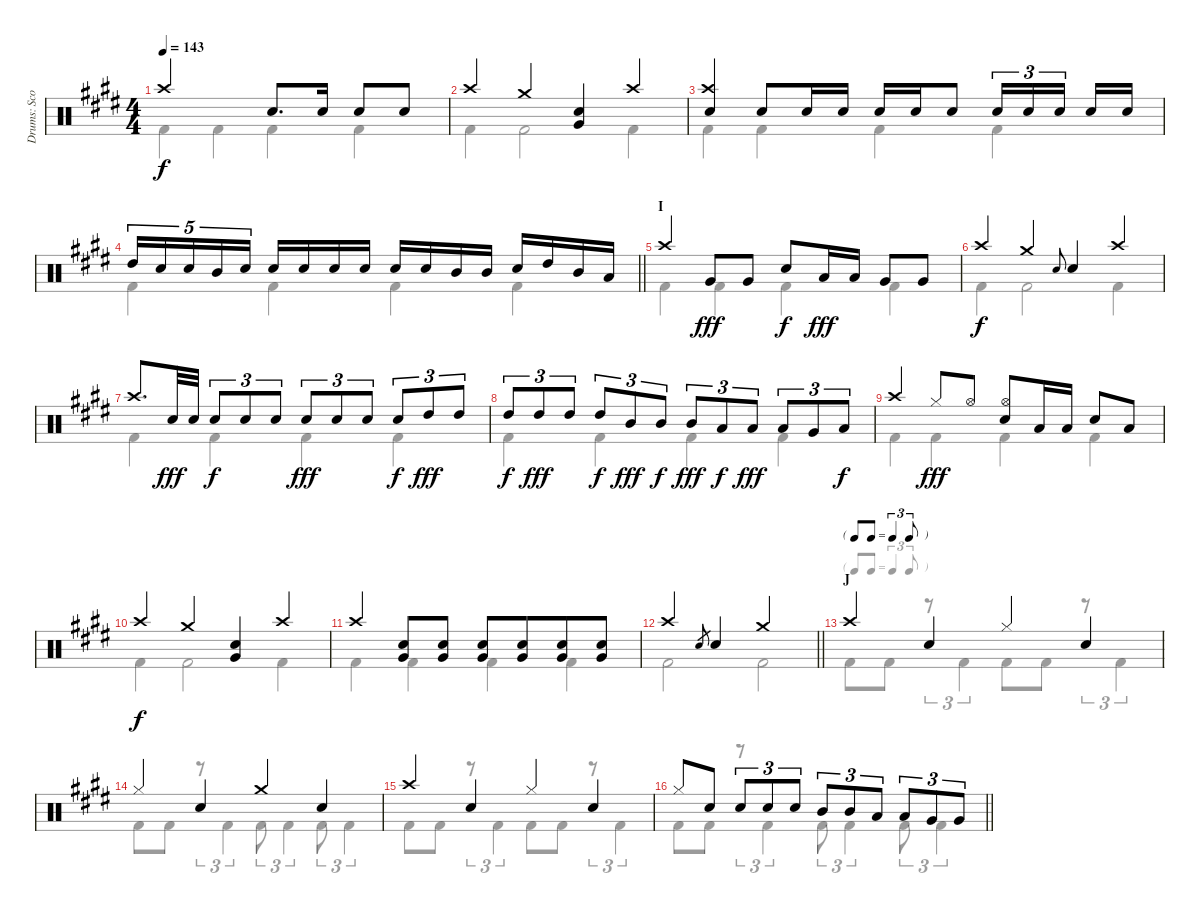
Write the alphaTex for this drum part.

\track ("Drums: Scott" "Drums: Sco") {instrument percussion}
\staff {score}
\articulation defaults
\voice
\ts (4 4)
\tempo 143
\clef neutral
\ks e "Crash high (hit)".2{dy f} "Snare (hit) 2".8{d} "Electric Snare (hit)".16 "Snare (hit) 2".8 "Snare (hit) 2".8
|
"Crash high (hit)".4 "Crash medium (hit)".4 ("Snare (hit) 2" "Very Low Tom (hit)").4 "Crash high (hit)".4 |
("Crash high (hit)" "Snare (hit) 2").4 "Snare (hit) 2".8 "Electric Snare (hit)".16 "Electric Snare (hit)".16 "Electric Snare (hit)".16 "Electric Snare (hit)".16 "Snare (hit) 2".8 "Electric Snare (hit)".16{tu (3 2)} "Electric Snare (hit)".16{tu (3 2)} "Electric Snare (hit)".16{tu (3 2) beam splitsecondary} "Snare (hit) 2".16 "Snare (hit) 2".16 |
\barLineRight lightlight "High Tom (hit)".16{tu (5 4)} "Electric Snare (hit)".16{tu (5 4)} "Electric Snare (hit)".16{tu (5 4)} "Mid Tom (hit)".16{tu (5 4)} "Electric Snare (hit)".16{tu (5 4)} "Electric Snare (hit)".16 "Electric Snare (hit)".16 "Electric Snare (hit)".16 "Electric Snare (hit)".16 "Electric Snare (hit)".16 "Electric Snare (hit)".16 "Mid Tom (hit)".16 "Mid Tom (hit)".16 "Electric Snare (hit)".16 "High Tom (hit)".16 "Mid Tom (hit)".16 "Low Tom (hit)".16
|
\section ("" "I")
"Crash high (hit)".4 "Very Low Tom (hit)".8{dy fff} "Very Low Tom (hit)".8 "Snare (hit) 2".8{dy f} "Low Tom (hit)".16{dy fff} "Low Tom (hit)".16 "Very Low Tom (hit)".8 "Very Low Tom (hit)".8 |
"Crash high (hit)".4{dy f} "Crash medium (hit)".4 "Electric Snare (hit)".8{gr onbeat} "Snare (hit) 2".4 "Crash high (hit)".4 |
"Crash high (hit)".8{d} "Electric Snare (hit)".32{dy fff} "Electric Snare (hit)".32 "Snare (hit) 2".8{tu (3 2) dy f} "Snare (hit) 2".8{tu (3 2)} "Snare (hit) 2".8{tu (3 2)} "Snare (hit) 2".8{tu (3 2) dy fff} "Snare (hit) 2".8{tu (3 2)} "Snare (hit) 2".8{tu (3 2)} "Snare (hit) 2".8{tu (3 2) dy f} "High Tom (hit)".8{tu (3 2) dy fff} "High Tom (hit)".8{tu (3 2)} |
"High Tom (hit)".8{tu (3 2) dy f} "High Tom (hit)".8{tu (3 2) dy fff} "High Tom (hit)".8{tu (3 2)} "High Tom (hit)".8{tu (3 2) dy f} "Mid Tom (hit)".8{tu (3 2) dy fff} "Mid Tom (hit)".8{tu (3 2) dy f} "Mid Tom (hit)".8{tu (3 2) dy fff} "Low Tom (hit)".8{tu (3 2) dy f} "Low Tom (hit)".8{tu (3 2) dy fff} "Low Tom (hit)".8{tu (3 2)} "Very Low Tom (hit)".8{tu (3 2)} "Low Floor Tom (hit)".8{tu (3 2) dy f} |
"Crash high (hit)".4 "Hi-Hat (closed)".8{dy fff} "Hi-Hat (open)".8 ("Hi-Hat (open)" "Snare (hit) 2").8 "Low Tom (hit)".16 "Low Tom (hit)".16 "Snare (hit) 2".8 "Low Tom (hit)".8 |
"Crash high (hit)".4{dy f} "Crash medium (hit)".4 ("Snare (hit) 2" "Very Low Tom (hit)").4 "Crash high (hit)".4 |
"Crash high (hit)".4 ("Snare (hit) 2" "Very Low Tom (hit)").8 ("Snare (hit) 2" "Very Low Tom (hit)").8 ("Snare (hit) 2" "Very Low Tom (hit)").8 ("Snare (hit) 2" "Very Low Tom (hit)").8{beam merge} ("Snare (hit) 2" "Very Low Tom (hit)").8 ("Snare (hit) 2" "Very Low Tom (hit)").8 |
\barLineRight lightlight "Crash high (hit)".4 "Electric Snare (hit)".8{gr} "Snare (hit) 2".4 "Crash medium (hit)".2
|
\tf triplet8th
\section ("" "J")
"Crash high (hit)".4 "Snare (hit) 2".4 "Hi-Hat (closed)".4 "Snare (hit) 2".4 |
"Hi-Hat (closed)".4 "Snare (hit) 2".4 "Crash medium (hit)".4 "Snare (hit) 2".4 |
"Crash high (hit)".4 "Snare (hit) 2".4 "Hi-Hat (closed)".4 "Snare (hit) 2".4 |
\barLineRight lightlight "Hi-Hat (closed)".8 "Snare (hit) 2".8 "Electric Snare (hit)".8{tu (3 2)} "Electric Snare (hit)".8{tu (3 2)} "Electric Snare (hit)".8{tu (3 2)} "Mid Tom (hit)".8{tu (3 2)} "Mid Tom (hit)".8{tu (3 2)} "Low Tom (hit)".8{tu (3 2)} "Low Tom (hit)".8{tu (3 2)} "Very Low Tom (hit)".8{tu (3 2)} "Very Low Tom (hit)".8{tu (3 2)}
\voice
\clef neutral
\ottava regular
\simile none
\ks e "Kick (hit) 2".4{dy f} "Kick (hit) 2".4 "Kick (hit) 2".4 "Kick (hit) 2".4
|
"Kick (hit) 2".4 "Kick (hit) 2".2 "Kick (hit) 2".4 |
"Kick (hit) 2".4 "Kick (hit) 2".4 "Kick (hit) 2".4 "Kick (hit) 2".4 |
\barLineRight lightlight "Kick (hit) 2".4 "Kick (hit) 2".4 "Kick (hit) 2".4 "Kick (hit) 2".4
|
"Kick (hit) 2".4 "Kick (hit) 2".4 "Kick (hit) 2".4 "Kick (hit) 2".4 |
"Kick (hit) 2".4 "Kick (hit) 2".2 "Kick (hit) 2".4 |
"Kick (hit) 2".4 "Kick (hit) 2".4 "Kick (hit) 2".4 "Kick (hit) 2".4 |
"Kick (hit) 2".4 "Kick (hit) 2".4 "Kick (hit) 2".4 "Kick (hit) 2".4 |
"Kick (hit) 2".4 "Kick (hit) 2".4 "Kick (hit) 2".4 "Kick (hit) 2".4 |
"Kick (hit) 2".4 "Kick (hit) 2".2 "Kick (hit) 2".4 |
"Kick (hit) 2".4 "Kick (hit) 2".4 "Kick (hit) 2".4 "Kick (hit) 2".4 |
\barLineRight lightlight "Kick (hit) 2".2 "Kick (hit) 2".2
|
"Kick (hit) 2".8 "Kick (hit) 2".8 r.8{tu (3 2)} "Kick (hit) 2".4{tu (3 2)} "Kick (hit) 2".8 "Kick (hit) 2".8 r.8{tu (3 2)} "Kick (hit) 2".4{tu (3 2)} |
"Kick (hit) 2".8 "Kick (hit) 2".8 r.8{tu (3 2)} "Kick (hit) 2".4{tu (3 2)} "Kick (hit) 2".8{tu (3 2)} "Kick (hit) 2".4{tu (3 2)} "Kick (hit) 2".8{tu (3 2)} "Kick (hit) 2".4{tu (3 2)} |
"Kick (hit) 2".8 "Kick (hit) 2".8 r.8{tu (3 2)} "Kick (hit) 2".4{tu (3 2)} "Kick (hit) 2".8 "Kick (hit) 2".8 r.8{tu (3 2)} "Kick (hit) 2".4{tu (3 2)} |
\barLineRight lightlight "Kick (hit) 2".8 "Kick (hit) 2".8
r.8{tu (3 2)} "Kick (hit) 2".4{tu (3 2)} "Kick (hit) 2".8{tu (3 2)} "Kick (hit) 2".4{tu (3 2)} "Kick (hit) 2".8{tu (3 2)} "Kick (hit) 2".4{tu (3 2)}
